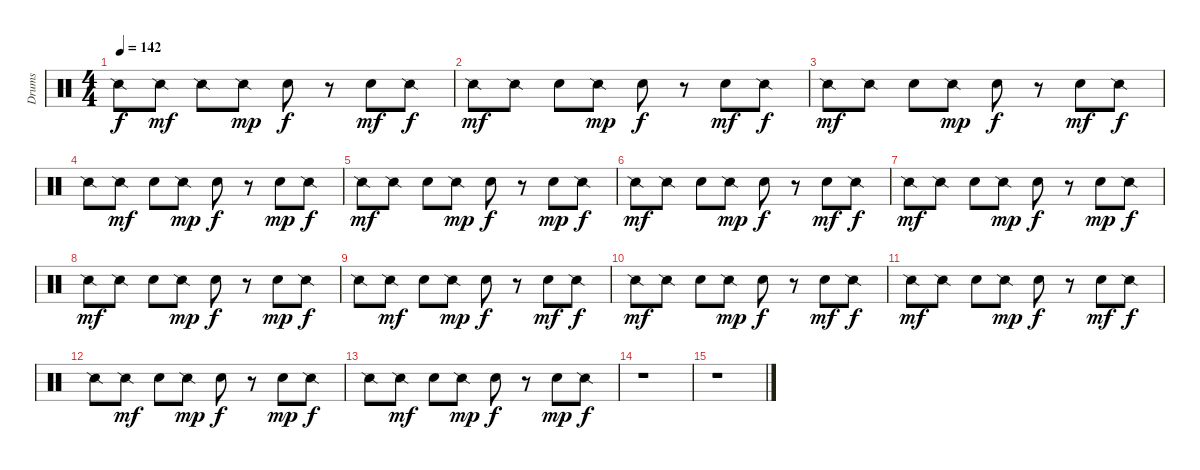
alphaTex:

\track ("Drums" "Drums") {instrument percussion}
\staff {score}
\articulation defaults
\ts (4 4)
\tempo 142
\clef neutral
\ks c "Snare (side stick) 2".8{dy f} "Snare (side stick) 2".8{dy mf} "Snare (side stick) 2".8 "Snare (side stick) 2".8{dy mp} "Electric Snare (hit)".8{dy f}
r.8 "Electric Snare (hit)".8{dy mf} "Snare (side stick) 2".8{dy f} |
"Snare (side stick) 2".8{dy mf} "Snare (side stick) 2".8 "Electric Snare (hit)".8 "Snare (side stick) 2".8{dy mp} "Electric Snare (hit)".8{dy f} r.8 "Electric Snare (hit)".8{dy mf} "Snare (side stick) 2".8{dy f} |
"Snare (side stick) 2".8{dy mf} "Snare (side stick) 2".8 "Electric Snare (hit)".8 "Snare (side stick) 2".8{dy mp} "Electric Snare (hit)".8{dy f} r.8 "Electric Snare (hit)".8{dy mf} "Snare (side stick) 2".8{dy f} |
"Snare (side stick) 2".8 "Snare (side stick) 2".8{dy mf} "Electric Snare (hit)".8 "Snare (side stick) 2".8{dy mp} "Electric Snare (hit)".8{dy f} r.8 "Electric Snare (hit)".8{dy mp} "Snare (side stick) 2".8{dy f} |
"Snare (side stick) 2".8{dy mf} "Snare (side stick) 2".8 "Electric Snare (hit)".8 "Snare (side stick) 2".8{dy mp} "Electric Snare (hit)".8{dy f} r.8 "Electric Snare (hit)".8{dy mp} "Snare (side stick) 2".8{dy f} |
"Snare (side stick) 2".8{dy mf} "Snare (side stick) 2".8 "Electric Snare (hit)".8 "Snare (side stick) 2".8{dy mp} "Electric Snare (hit)".8{dy f} r.8 "Electric Snare (hit)".8{dy mf} "Snare (side stick) 2".8{dy f} |
"Snare (side stick) 2".8{dy mf} "Snare (side stick) 2".8 "Electric Snare (hit)".8 "Snare (side stick) 2".8{dy mp} "Electric Snare (hit)".8{dy f} r.8 "Electric Snare (hit)".8{dy mp} "Snare (side stick) 2".8{dy f} |
"Snare (side stick) 2".8{dy mf} "Snare (side stick) 2".8 "Electric Snare (hit)".8 "Snare (side stick) 2".8{dy mp} "Electric Snare (hit)".8{dy f} r.8 "Electric Snare (hit)".8{dy mp} "Snare (side stick) 2".8{dy f} |
"Snare (side stick) 2".8 "Snare (side stick) 2".8{dy mf} "Electric Snare (hit)".8 "Snare (side stick) 2".8{dy mp} "Electric Snare (hit)".8{dy f} r.8 "Electric Snare (hit)".8{dy mf} "Snare (side stick) 2".8{dy f} |
"Snare (side stick) 2".8{dy mf} "Snare (side stick) 2".8 "Electric Snare (hit)".8 "Snare (side stick) 2".8{dy mp} "Electric Snare (hit)".8{dy f} r.8 "Electric Snare (hit)".8{dy mf} "Snare (side stick) 2".8{dy f} |
"Snare (side stick) 2".8{dy mf} "Snare (side stick) 2".8 "Electric Snare (hit)".8 "Snare (side stick) 2".8{dy mp} "Electric Snare (hit)".8{dy f} r.8 "Electric Snare (hit)".8{dy mf} "Snare (side stick) 2".8{dy f} |
"Snare (side stick) 2".8 "Snare (side stick) 2".8{dy mf} "Electric Snare (hit)".8 "Snare (side stick) 2".8{dy mp} "Electric Snare (hit)".8{dy f} r.8 "Electric Snare (hit)".8{dy mp} "Snare (side stick) 2".8{dy f} |
"Snare (side stick) 2".8 "Snare (side stick) 2".8{dy mf} "Electric Snare (hit)".8 "Snare (side stick) 2".8{dy mp} "Electric Snare (hit)".8{dy f} r.8 "Electric Snare (hit)".8{dy mp} "Snare (side stick) 2".8{dy f} |
r.1 |
r.1
